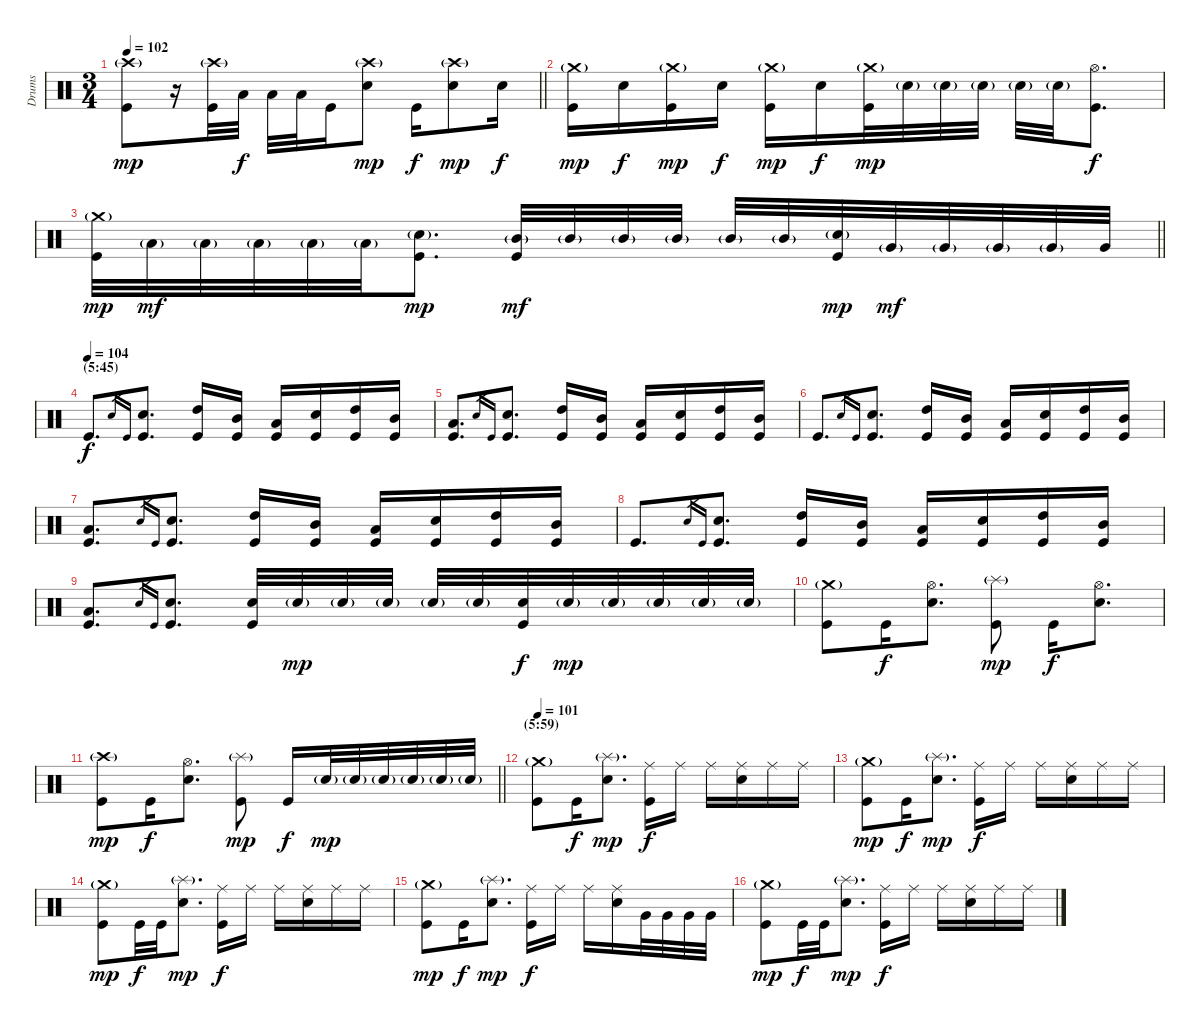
\track ("Drums" "Drums") {instrument percussion}
\staff {score}
\articulation defaults
\ts (3 4)
\tempo 102
\clef neutral
\barLineRight lightlight
\ks c
("Crash high (hit)"{g} "Kick (hit)").8{dy mp} r.16 ("Crash high (hit)"{g} "Kick (hit)").32 "Low Floor Tom (hit)".32{dy f} "Low Floor Tom (hit)".32 "Low Floor Tom (hit)".32 "Kick (hit)".16 ("Crash high (hit)"{g} "Snare (hit) 2").8{dy mp} "Kick (hit)".16{dy f} ("Crash high (hit)"{g} "Snare (hit) 2").8{dy mp} "Snare (hit) 2".16{dy f} |
("Crash medium (hit)"{g} "Kick (hit)").16{dy mp} "Snare (hit) 2".16{dy f} ("Crash medium (hit)"{g} "Kick (hit)").16{dy mp} "Snare (hit) 2".16{dy f} ("Crash medium (hit)"{g} "Kick (hit)").16{dy mp} "Snare (hit) 2".16{dy f} ("Crash medium (hit)"{g} "Kick (hit)").32{dy mp} "Snare (hit) 2"{g}.32 "Snare (hit) 2"{g}.32 "Snare (hit) 2"{g}.32 "Snare (hit) 2"{g}.32 "Snare (hit) 2"{g}.32 ("Hi-Hat (open)" "Kick (hit)").8{d dy f} |
\barLineRight lightlight
("Crash medium (hit)"{g} "Kick (hit)").32{dy mp} "Low Tom (hit)"{g}.32{dy mf} "Low Tom (hit)"{g}.32 "Low Tom (hit)"{g}.32 "Low Tom (hit)"{g}.32 "Low Tom (hit)"{g}.32 ("Snare (hit) 2"{g} "Kick (hit)").8{d dy mp} ("Mid Tom (hit)"{g} "Kick (hit)").32{dy mf} "Mid Tom (hit)"{g}.32 "Mid Tom (hit)"{g}.32 "Mid Tom (hit)"{g}.32 "Mid Tom (hit)"{g}.32 "Mid Tom (hit)"{g}.32 ("Snare (hit) 2"{g} "Kick (hit)").32{dy mp} "Very Low Tom (hit)"{g}.32{dy mf} "Very Low Tom (hit)"{g}.32 "Very Low Tom (hit)"{g}.32 "Very Low Tom (hit)"{g}.32 "Very Low Tom (hit)".32 |
\section ("" "(5:45)")
\tempo (104)
"Kick (hit)".8{d dy f} "Snare (hit) 2".16{gr} "Kick (hit)".16{gr} ("Snare (hit) 2" "Kick (hit)").8{d} ("High Tom (hit)" "Kick (hit)").16 ("Mid Tom (hit)" "Kick (hit)").16 ("Low Tom (hit)" "Kick (hit)").16 ("Snare (hit) 2" "Kick (hit)").16 ("High Tom (hit)" "Kick (hit)").16 ("Mid Tom (hit)" "Kick (hit)").16 |
("Low Tom (hit)" "Kick (hit)").8{d} "Snare (hit) 2".16{gr} "Kick (hit)".16{gr} ("Snare (hit) 2" "Kick (hit)").8{d} ("High Tom (hit)" "Kick (hit)").16 ("Mid Tom (hit)" "Kick (hit)").16 ("Low Tom (hit)" "Kick (hit)").16 ("Snare (hit) 2" "Kick (hit)").16 ("High Tom (hit)" "Kick (hit)").16 ("Mid Tom (hit)" "Kick (hit)").16 |
"Kick (hit)".8{d} "Snare (hit) 2".16{gr} "Kick (hit)".16{gr} ("Snare (hit) 2" "Kick (hit)").8{d} ("High Tom (hit)" "Kick (hit)").16 ("Mid Tom (hit)" "Kick (hit)").16 ("Low Tom (hit)" "Kick (hit)").16 ("Snare (hit) 2" "Kick (hit)").16 ("High Tom (hit)" "Kick (hit)").16 ("Mid Tom (hit)" "Kick (hit)").16 |
("Low Tom (hit)" "Kick (hit)").8{d} "Snare (hit) 2".16{gr} "Kick (hit)".16{gr} ("Snare (hit) 2" "Kick (hit)").8{d} ("High Tom (hit)" "Kick (hit)").16 ("Mid Tom (hit)" "Kick (hit)").16 ("Low Tom (hit)" "Kick (hit)").16 ("Snare (hit) 2" "Kick (hit)").16 ("High Tom (hit)" "Kick (hit)").16 ("Mid Tom (hit)" "Kick (hit)").16 |
"Kick (hit)".8{d} "Snare (hit) 2".16{gr} "Kick (hit)".16{gr} ("Snare (hit) 2" "Kick (hit)").8{d} ("High Tom (hit)" "Kick (hit)").16 ("Mid Tom (hit)" "Kick (hit)").16 ("Low Tom (hit)" "Kick (hit)").16 ("Snare (hit) 2" "Kick (hit)").16 ("High Tom (hit)" "Kick (hit)").16 ("Mid Tom (hit)" "Kick (hit)").16 |
("Low Tom (hit)" "Kick (hit)").8{d} "Snare (hit) 2".16{gr} "Kick (hit)".16{gr} ("Snare (hit) 2" "Kick (hit)").8{d} ("Snare (hit) 2" "Kick (hit)").32 "Snare (hit) 2"{g}.32{dy mp} "Snare (hit) 2"{g}.32 "Snare (hit) 2"{g}.32 "Snare (hit) 2"{g}.32 "Snare (hit) 2"{g}.32 ("Snare (hit) 2" "Kick (hit)").32{dy f} "Snare (hit) 2"{g}.32{dy mp} "Snare (hit) 2"{g}.32 "Snare (hit) 2"{g}.32 "Snare (hit) 2"{g}.32 "Snare (hit) 2"{g}.32 |
("Crash medium (hit)"{g} "Kick (hit)").8 "Kick (hit)".16{dy f} ("Hi-Hat (open)" "Snare (hit) 2").8{d} ("Splash (hit)"{g} "Kick (hit)").8{dy mp} "Kick (hit)".16{dy f} ("Hi-Hat (open)" "Snare (hit) 2").8{d} |
\barLineRight lightlight
("Crash high (hit)"{g} "Kick (hit)").8{dy mp} "Kick (hit)".16{dy f} ("Hi-Hat (open)" "Snare (hit) 2").8{d} ("Splash (hit)"{g} "Kick (hit)").8{dy mp} "Kick (hit)".16{dy f} "Snare (hit) 2"{g}.32{dy mp} "Snare (hit) 2"{g}.32 "Snare (hit) 2"{g}.32 "Snare (hit) 2"{g}.32 "Snare (hit) 2"{g}.32 "Snare (hit) 2"{g}.32 |
\section ("" "(5:59)")
\tempo 101
("Crash medium (hit)"{g} "Kick (hit)").8 "Kick (hit)".16{dy f} ("Splash (hit)"{g} "Snare (hit) 2").8{d dy mp} ("Ride (middle)" "Kick (hit)").16{dy f} "Ride (middle)".16 "Ride (middle)".16 ("Ride (middle)" "Snare (hit) 2").16 "Ride (middle)".16 "Ride (middle)".16 |
("Crash medium (hit)"{g} "Kick (hit)").8{dy mp} "Kick (hit)".16{dy f} ("Splash (hit)"{g} "Snare (hit) 2").8{d dy mp} ("Ride (middle)" "Kick (hit)").16{dy f} "Ride (middle)".16 "Ride (middle)".16 ("Ride (middle)" "Snare (hit) 2").16 "Ride (middle)".16 "Ride (middle)".16 |
("Crash medium (hit)"{g} "Kick (hit)").8{dy mp} "Kick (hit)".32{dy f} "Kick (hit)".32 ("Splash (hit)"{g} "Snare (hit) 2").8{d dy mp} ("Ride (middle)" "Kick (hit)").16{dy f} "Ride (middle)".16 "Ride (middle)".16 ("Ride (middle)" "Snare (hit) 2").16 "Ride (middle)".16 "Ride (middle)".16 |
("Crash medium (hit)"{g} "Kick (hit)").8{dy mp} "Kick (hit)".16{dy f} ("Splash (hit)"{g} "Snare (hit) 2").8{d dy mp} ("Ride (middle)" "Kick (hit)").16{dy f} "Ride (middle)".16 "Ride (middle)".16 ("Ride (middle)" "Snare (hit) 2").16 "Very Low Tom (hit)".32 "Very Low Tom (hit)".32 "Very Low Tom (hit)".32 "Very Low Tom (hit)".32 |
("Crash medium (hit)"{g} "Kick (hit)").8{dy mp} "Kick (hit)".32{dy f} "Kick (hit)".32 ("Splash (hit)"{g} "Snare (hit) 2").8{d dy mp} ("Ride (middle)" "Kick (hit)").16{dy f} "Ride (middle)".16 "Ride (middle)".16 ("Ride (middle)" "Snare (hit) 2").16 "Ride (middle)".16 "Ride (middle)".16
